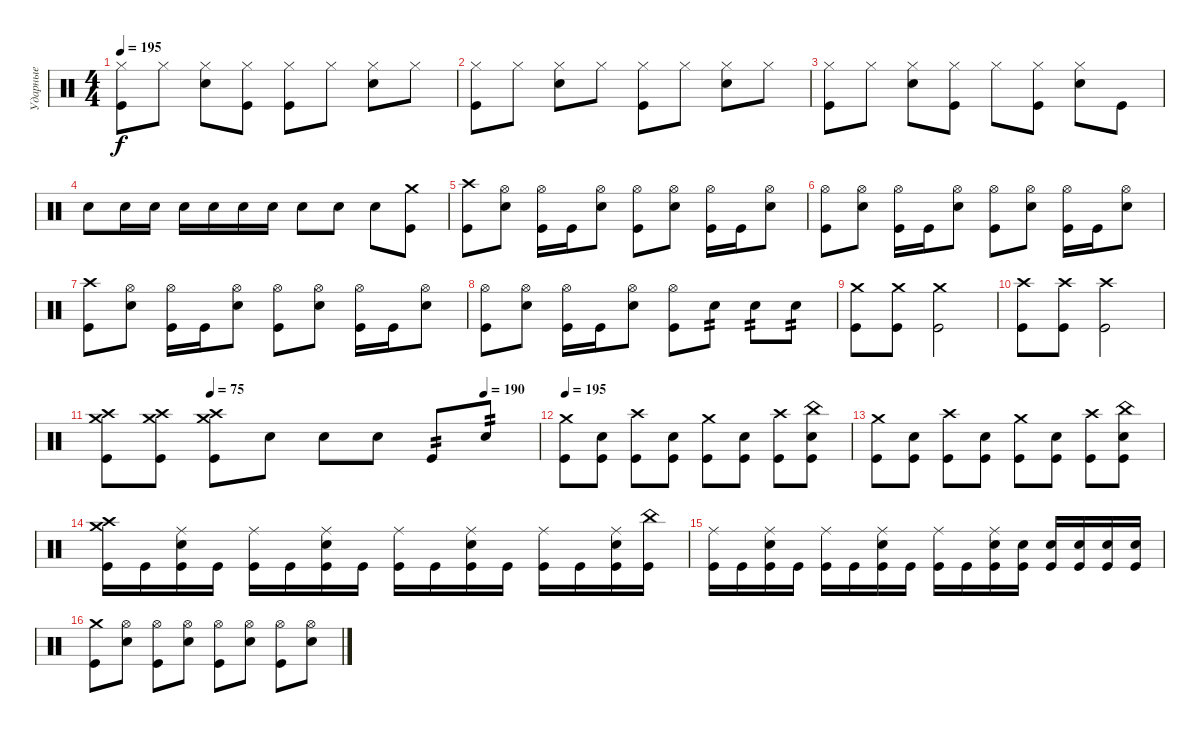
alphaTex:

\track ("Ударные" "Ударные") {instrument percussion}
\staff {score}
\articulation defaults
\ts (4 4)
\tempo 195
\clef neutral
\ks c
("Hi-Hat (closed)" "Kick (hit)").8{dy f} "Hi-Hat (closed)".8 ("Hi-Hat (closed)" "Electric Snare (hit)").8 ("Hi-Hat (closed)" "Kick (hit)").8 ("Hi-Hat (closed)" "Kick (hit)").8 "Hi-Hat (closed)".8 ("Hi-Hat (closed)" "Electric Snare (hit)").8 "Hi-Hat (closed)".8 |
("Hi-Hat (closed)" "Kick (hit)").8 "Hi-Hat (closed)".8 ("Hi-Hat (closed)" "Electric Snare (hit)").8 "Hi-Hat (closed)".8 ("Hi-Hat (closed)" "Kick (hit)").8 "Hi-Hat (closed)".8 ("Hi-Hat (closed)" "Electric Snare (hit)").8 "Hi-Hat (closed)".8 |
("Hi-Hat (closed)" "Kick (hit)").8 "Hi-Hat (closed)".8 ("Hi-Hat (closed)" "Electric Snare (hit)").8 ("Hi-Hat (closed)" "Kick (hit)").8 "Hi-Hat (closed)".8 ("Hi-Hat (closed)" "Kick (hit)").8 ("Hi-Hat (closed)" "Electric Snare (hit)").8 "Kick (hit)".8 |
"Electric Snare (hit)".8 "Electric Snare (hit)".16 "Electric Snare (hit)".16 "Electric Snare (hit)".16 "Electric Snare (hit)".16 "Electric Snare (hit)".16 "Electric Snare (hit)".16 "Electric Snare (hit)".8 "Electric Snare (hit)".8 "Electric Snare (hit)".8 ("Crash medium (hit)" "Kick (hit)").8 |
("Kick (hit)" "Crash high (hit)").8 ("Electric Snare (hit)" "Hi-Hat (open)").8 ("Kick (hit)" "Hi-Hat (open)").16 "Kick (hit)".16 ("Electric Snare (hit)" "Hi-Hat (open)").8 ("Kick (hit)" "Hi-Hat (open)").8 ("Electric Snare (hit)" "Hi-Hat (open)").8 ("Kick (hit)" "Hi-Hat (open)").16 "Kick (hit)".16 ("Electric Snare (hit)" "Hi-Hat (open)").8 |
("Kick (hit)" "Hi-Hat (open)").8 ("Electric Snare (hit)" "Hi-Hat (open)").8 ("Kick (hit)" "Hi-Hat (open)").16 "Kick (hit)".16 ("Electric Snare (hit)" "Hi-Hat (open)").8 ("Kick (hit)" "Hi-Hat (open)").8 ("Electric Snare (hit)" "Hi-Hat (open)").8 ("Kick (hit)" "Hi-Hat (open)").16 "Kick (hit)".16 ("Electric Snare (hit)" "Hi-Hat (open)").8 |
("Kick (hit)" "Crash high (hit)").8 ("Electric Snare (hit)" "Hi-Hat (open)").8 ("Kick (hit)" "Hi-Hat (open)").16 "Kick (hit)".16 ("Electric Snare (hit)" "Hi-Hat (open)").8 ("Kick (hit)" "Hi-Hat (open)").8 ("Electric Snare (hit)" "Hi-Hat (open)").8 ("Kick (hit)" "Hi-Hat (open)").16 "Kick (hit)".16 ("Electric Snare (hit)" "Hi-Hat (open)").8 |
("Kick (hit)" "Hi-Hat (open)").8 ("Electric Snare (hit)" "Hi-Hat (open)").8 ("Kick (hit)" "Hi-Hat (open)").16 "Kick (hit)".16 ("Electric Snare (hit)" "Hi-Hat (open)").8 ("Kick (hit)" "Hi-Hat (open)").8 "Electric Snare (hit)".8{tp 2} "Electric Snare (hit)".8{tp 2} "Electric Snare (hit)".8{tp 2} |
("Kick (hit)" "Crash medium (hit)").8 ("Kick (hit)" "Crash medium (hit)").8 ("Kick (hit)" "Crash medium (hit)").2 |
("Kick (hit)" "Crash high (hit)").8 ("Kick (hit)" "Crash high (hit)").8 ("Kick (hit)" "Crash high (hit)").2 |
\tempo (75 0.25)
\tempo (190 0.875)
("Kick (hit)" "Crash medium (hit)" "Crash high (hit)").8 ("Kick (hit)" "Crash medium (hit)" "Crash high (hit)").8 ("Kick (hit)" "Crash medium (hit)" "Crash high (hit)").8 "Snare (hit)".8 "Snare (hit)".8 "Snare (hit)".8 "Kick (hit)".8{tp 2} "Electric Snare (hit)".8{tp 2} |
\tempo 195
("Kick (hit)" "Crash medium (hit)").8 ("Kick (hit)" "Electric Snare (hit)").8 ("Kick (hit)" "Crash high (hit)").8 ("Kick (hit)" "Electric Snare (hit)").8 ("Kick (hit)" "Crash medium (hit)").8 ("Kick (hit)" "Electric Snare (hit)").8 ("Kick (hit)" "Crash high (hit)").8 ("Kick (hit)" "Electric Snare (hit)" "China (hit)").8 |
("Kick (hit)" "Crash medium (hit)").8 ("Kick (hit)" "Electric Snare (hit)").8 ("Kick (hit)" "Crash high (hit)").8 ("Kick (hit)" "Electric Snare (hit)").8 ("Kick (hit)" "Crash medium (hit)").8 ("Kick (hit)" "Electric Snare (hit)").8 ("Kick (hit)" "Crash high (hit)").8 ("Kick (hit)" "Electric Snare (hit)" "China (hit)").8 |
("Kick (hit)" "Crash medium (hit)" "Crash high (hit)").16 "Kick (hit)".16 ("Kick (hit)" "Electric Snare (hit)" "Ride (middle)").16 "Kick (hit)".16 ("Kick (hit)" "Ride (middle)").16 "Kick (hit)".16 ("Kick (hit)" "Electric Snare (hit)" "Ride (middle)").16 "Kick (hit)".16 ("Kick (hit)" "Ride (middle)").16 "Kick (hit)".16 ("Kick (hit)" "Electric Snare (hit)" "Ride (middle)").16 "Kick (hit)".16 ("Kick (hit)" "Ride (middle)").16 "Kick (hit)".16 ("Kick (hit)" "Electric Snare (hit)" "Ride (middle)").16 ("Kick (hit)" "China (hit)").16 |
("Kick (hit)" "Ride (middle)").16 "Kick (hit)".16 ("Kick (hit)" "Electric Snare (hit)" "Ride (middle)").16 "Kick (hit)".16 ("Kick (hit)" "Ride (middle)").16 "Kick (hit)".16 ("Kick (hit)" "Electric Snare (hit)" "Ride (middle)").16 "Kick (hit)".16 ("Kick (hit)" "Ride (middle)").16 "Kick (hit)".16 ("Kick (hit)" "Electric Snare (hit)" "Ride (middle)").16 ("Kick (hit)" "Electric Snare (hit)").16 ("Kick (hit)" "Electric Snare (hit)").16 ("Kick (hit)" "Electric Snare (hit)").16 ("Kick (hit)" "Electric Snare (hit)").16 ("Kick (hit)" "Electric Snare (hit)").16 |
("Kick (hit)" "Crash medium (hit)").8 ("Electric Snare (hit)" "Hi-Hat (open)").8 ("Kick (hit)" "Hi-Hat (open)").8 ("Electric Snare (hit)" "Hi-Hat (open)").8 ("Kick (hit)" "Hi-Hat (open)").8 ("Electric Snare (hit)" "Hi-Hat (open)").8 ("Kick (hit)" "Hi-Hat (open)").8 ("Electric Snare (hit)" "Hi-Hat (open)").8
